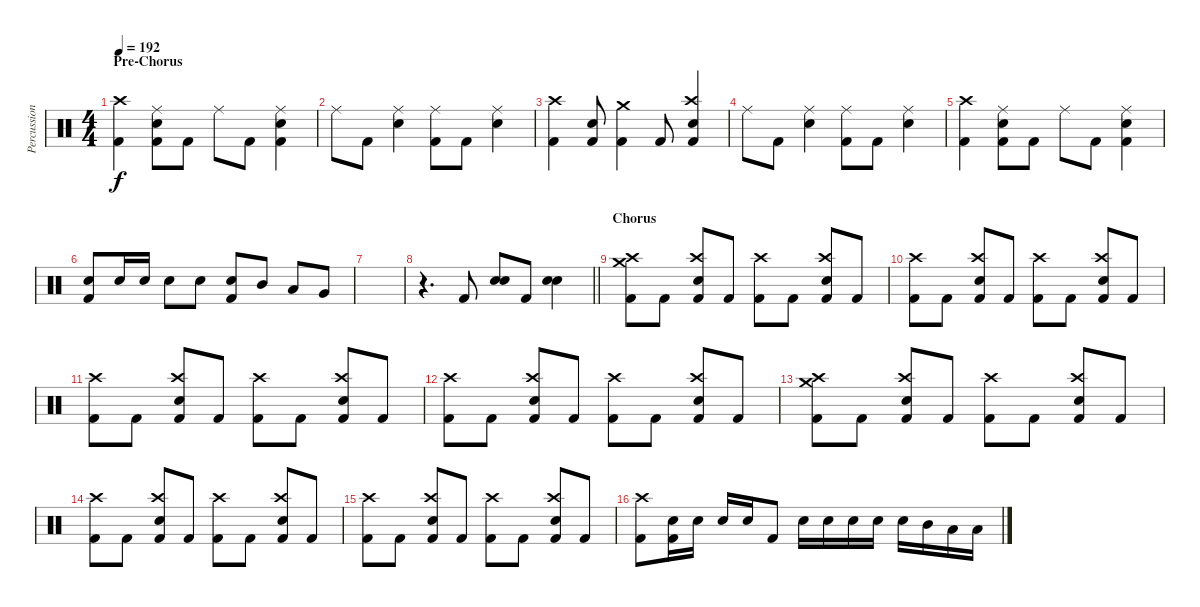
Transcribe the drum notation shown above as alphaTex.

\track ("Percussion" "Percussion") {instrument percussion}
\staff {score}
\articulation defaults
\ts (4 4)
\section ("" "Pre-Chorus")
\tempo 192
\clef neutral
\ks aminor
("Kick (hit) 2" "Crash high (hit)").4{dy f} ("Kick (hit) 2" "Snare (hit) 2" "Ride (middle)").8 "Kick (hit) 2".8 "Ride (middle)".8 "Kick (hit) 2".8 ("Kick (hit) 2" "Snare (hit) 2" "Ride (middle)").4 |
"Ride (middle)".8 "Kick (hit) 2".8 ("Snare (hit) 2" "Ride (middle)").4 ("Kick (hit) 2" "Ride (middle)").8 "Kick (hit) 2".8 ("Snare (hit) 2" "Ride (middle)").4 |
("Kick (hit) 2" "Crash high (hit)").4 ("Kick (hit) 2" "Snare (hit) 2").8 ("Kick (hit) 2" "Crash medium (hit)").4 "Kick (hit) 2".8 ("Kick (hit) 2" "Snare (hit) 2" "Crash high (hit)").4 |
"Ride (middle)".8 "Kick (hit) 2".8 ("Snare (hit) 2" "Ride (middle)").4 ("Kick (hit) 2" "Ride (middle)").8 "Kick (hit) 2".8 ("Snare (hit) 2" "Ride (middle)").4 |
("Kick (hit) 2" "Crash high (hit)").4 ("Kick (hit) 2" "Snare (hit) 2" "Ride (middle)").8 "Kick (hit) 2".8 "Ride (middle)".8 "Kick (hit) 2".8 ("Kick (hit) 2" "Snare (hit) 2" "Ride (middle)").4 |
("Kick (hit) 2" "Snare (hit) 2").8 "Snare (hit) 2".16 "Snare (hit) 2".16 "Snare (hit) 2".8 "Snare (hit) 2".8 ("Kick (hit) 2" "Snare (hit) 2").8 "Mid Tom (hit)".8 "Low Tom (hit)".8 "Very Low Tom (hit)".8 |
|
\barLineRight lightlight
r.4{d} "Kick (hit) 2".8 ("Snare (hit) 2" "Snare (hit) 2").8 "Kick (hit) 2".8 ("Snare (hit) 2" "Snare (hit) 2").4 |
\section ("" "Chorus")
("Kick (hit) 2" "Crash medium (hit)" "Crash high (hit)").8 "Kick (hit) 2".8 ("Kick (hit) 2" "Snare (hit) 2" "Crash high (hit)").8 "Kick (hit) 2".8 ("Kick (hit) 2" "Crash high (hit)").8 "Kick (hit) 2".8 ("Kick (hit) 2" "Snare (hit) 2" "Crash high (hit)").8 "Kick (hit) 2".8 |
("Kick (hit) 2" "Crash high (hit)").8 "Kick (hit) 2".8 ("Kick (hit) 2" "Snare (hit) 2" "Crash high (hit)").8 "Kick (hit) 2".8 ("Kick (hit) 2" "Crash high (hit)").8 "Kick (hit) 2".8 ("Kick (hit) 2" "Snare (hit) 2" "Crash high (hit)").8 "Kick (hit) 2".8 |
("Kick (hit) 2" "Crash high (hit)").8 "Kick (hit) 2".8 ("Kick (hit) 2" "Snare (hit) 2" "Crash high (hit)").8 "Kick (hit) 2".8 ("Kick (hit) 2" "Crash high (hit)").8 "Kick (hit) 2".8 ("Kick (hit) 2" "Snare (hit) 2" "Crash high (hit)").8 "Kick (hit) 2".8 |
("Kick (hit) 2" "Crash high (hit)").8 "Kick (hit) 2".8 ("Kick (hit) 2" "Snare (hit) 2" "Crash high (hit)").8 "Kick (hit) 2".8 ("Kick (hit) 2" "Crash high (hit)").8 "Kick (hit) 2".8 ("Kick (hit) 2" "Snare (hit) 2" "Crash high (hit)").8 "Kick (hit) 2".8 |
("Kick (hit) 2" "Crash medium (hit)" "Crash high (hit)").8 "Kick (hit) 2".8 ("Kick (hit) 2" "Snare (hit) 2" "Crash high (hit)").8 "Kick (hit) 2".8 ("Kick (hit) 2" "Crash high (hit)").8 "Kick (hit) 2".8 ("Kick (hit) 2" "Snare (hit) 2" "Crash high (hit)").8 "Kick (hit) 2".8 |
("Kick (hit) 2" "Crash high (hit)").8 "Kick (hit) 2".8 ("Kick (hit) 2" "Snare (hit) 2" "Crash high (hit)").8 "Kick (hit) 2".8 ("Kick (hit) 2" "Crash high (hit)").8 "Kick (hit) 2".8 ("Kick (hit) 2" "Snare (hit) 2" "Crash high (hit)").8 "Kick (hit) 2".8 |
("Kick (hit) 2" "Crash high (hit)").8 "Kick (hit) 2".8 ("Kick (hit) 2" "Snare (hit) 2" "Crash high (hit)").8 "Kick (hit) 2".8 ("Kick (hit) 2" "Crash high (hit)").8 "Kick (hit) 2".8 ("Kick (hit) 2" "Snare (hit) 2" "Crash high (hit)").8 "Kick (hit) 2".8 |
("Kick (hit) 2" "Crash high (hit)").8 ("Kick (hit) 2" "Snare (hit) 2").16 "Snare (hit) 2".16 "Snare (hit) 2".16 "Snare (hit) 2".16 "Kick (hit) 2".8 "Snare (hit) 2".16 "Snare (hit) 2".16 "Snare (hit) 2".16 "Snare (hit) 2".16 "Snare (hit) 2".16 "Mid Tom (hit)".16 "Low Tom (hit)".16 "Low Floor Tom (hit)".16
